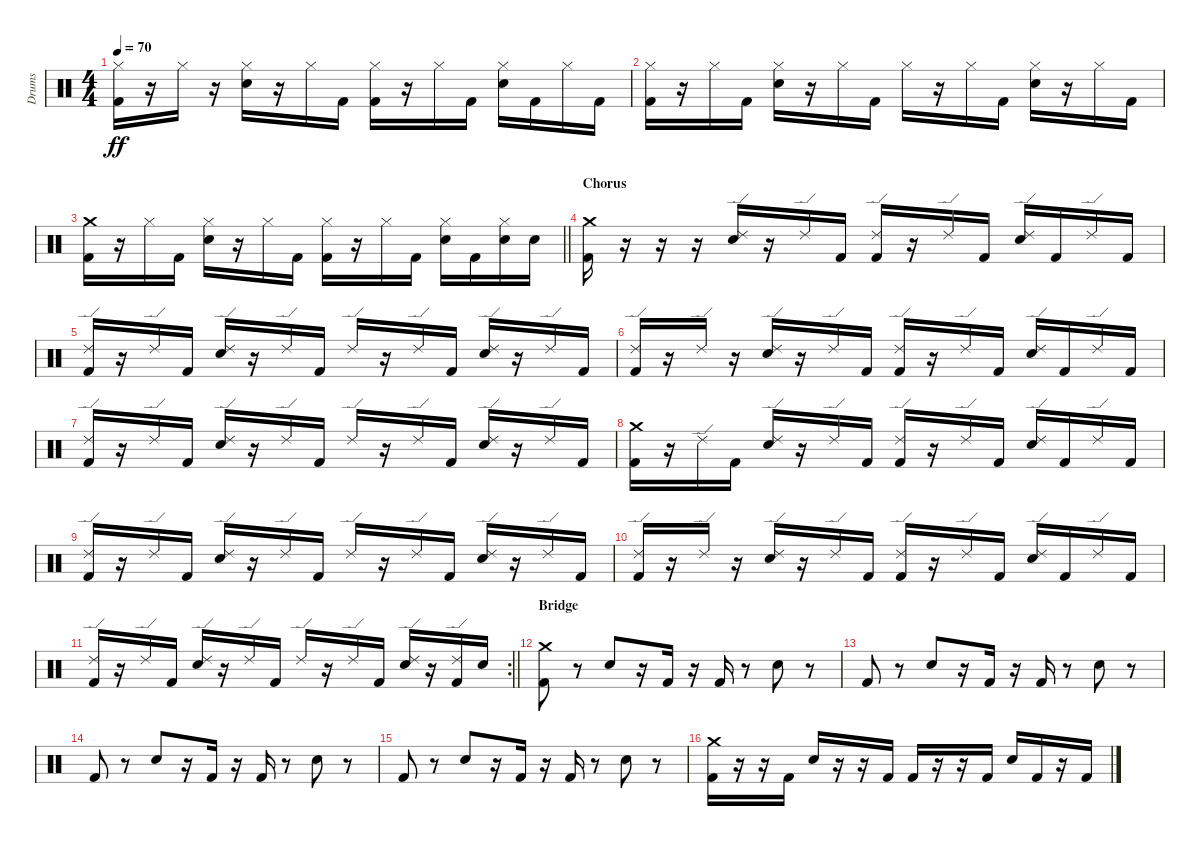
\track ("Drums" "Drums") {instrument percussion}
\staff {score}
\articulation defaults
\ts (4 4)
\tempo 70
\clef neutral
\ks c
("Hi-Hat (closed)" "Kick (hit) 2").16{dy ff} r.16 "Hi-Hat (closed)".16 r.16 ("Hi-Hat (closed)" "Snare (hit) 2").16 r.16 "Hi-Hat (closed)".16 "Kick (hit) 2".16 ("Hi-Hat (closed)" "Kick (hit) 2").16 r.16 "Hi-Hat (closed)".16 "Kick (hit) 2".16 ("Hi-Hat (closed)" "Snare (hit) 2").16 "Kick (hit) 2".16 "Hi-Hat (closed)".16 "Kick (hit) 2".16 |
("Hi-Hat (closed)" "Kick (hit) 2").16 r.16 "Hi-Hat (closed)".16 "Kick (hit) 2".16 ("Hi-Hat (closed)" "Snare (hit) 2").16 r.16 "Hi-Hat (closed)".16 "Kick (hit) 2".16 "Hi-Hat (closed)".16 r.16 "Hi-Hat (closed)".16 "Kick (hit) 2".16 ("Hi-Hat (closed)" "Snare (hit) 2").16 r.16 "Hi-Hat (closed)".16 "Kick (hit) 2".16 |
\barLineRight lightlight
("Crash medium (hit)" "Kick (hit) 2").16 r.16 "Hi-Hat (closed)".16 "Kick (hit) 2".16 ("Hi-Hat (closed)" "Snare (hit) 2").16 r.16 "Hi-Hat (closed)".16 "Kick (hit) 2".16 ("Hi-Hat (closed)" "Kick (hit) 2").16 r.16 "Hi-Hat (closed)".16 "Kick (hit) 2".16 ("Hi-Hat (closed)" "Snare (hit) 2").16 "Kick (hit) 2".16 ("Hi-Hat (closed)" "Snare (hit) 2").16 "Snare (hit) 2".16 |
\section ("" "Chorus")
("Crash medium (hit)" "Kick (hit) 2").16 r.16 r.16 r.16 ("Ride (edge) 2" "Snare (hit) 2").16 r.16 "Ride (edge) 2".16 "Kick (hit) 2".16 ("Ride (edge) 2" "Kick (hit) 2").16 r.16 "Ride (edge) 2".16 "Kick (hit) 2".16 ("Ride (edge) 2" "Snare (hit) 2").16 "Kick (hit) 2".16 "Ride (edge) 2".16 "Kick (hit) 2".16 |
("Ride (edge) 2" "Kick (hit) 2").16 r.16 "Ride (edge) 2".16 "Kick (hit) 2".16 ("Ride (edge) 2" "Snare (hit) 2").16 r.16 "Ride (edge) 2".16 "Kick (hit) 2".16 "Ride (edge) 2".16 r.16 "Ride (edge) 2".16 "Kick (hit) 2".16 ("Ride (edge) 2" "Snare (hit) 2").16 r.16 "Ride (edge) 2".16 "Kick (hit) 2".16 |
("Ride (edge) 2" "Kick (hit) 2").16 r.16 "Ride (edge) 2".16 r.16 ("Ride (edge) 2" "Snare (hit) 2").16 r.16 "Ride (edge) 2".16 "Kick (hit) 2".16 ("Ride (edge) 2" "Kick (hit) 2").16 r.16 "Ride (edge) 2".16 "Kick (hit) 2".16 ("Ride (edge) 2" "Snare (hit) 2").16 "Kick (hit) 2".16 "Ride (edge) 2".16 "Kick (hit) 2".16 |
("Ride (edge) 2" "Kick (hit) 2").16 r.16 "Ride (edge) 2".16 "Kick (hit) 2".16 ("Ride (edge) 2" "Snare (hit) 2").16 r.16 "Ride (edge) 2".16 "Kick (hit) 2".16 "Ride (edge) 2".16 r.16 "Ride (edge) 2".16 "Kick (hit) 2".16 ("Ride (edge) 2" "Snare (hit) 2").16 r.16 "Ride (edge) 2".16 "Kick (hit) 2".16 |
("Crash medium (hit)" "Kick (hit) 2").16 r.16 "Ride (edge) 2".16 "Kick (hit) 2".16 ("Ride (edge) 2" "Snare (hit) 2").16 r.16 "Ride (edge) 2".16 "Kick (hit) 2".16 ("Ride (edge) 2" "Kick (hit) 2").16 r.16 "Ride (edge) 2".16 "Kick (hit) 2".16 ("Ride (edge) 2" "Snare (hit) 2").16 "Kick (hit) 2".16 "Ride (edge) 2".16 "Kick (hit) 2".16 |
("Ride (edge) 2" "Kick (hit) 2").16 r.16 "Ride (edge) 2".16 "Kick (hit) 2".16 ("Ride (edge) 2" "Snare (hit) 2").16 r.16 "Ride (edge) 2".16 "Kick (hit) 2".16 "Ride (edge) 2".16 r.16 "Ride (edge) 2".16 "Kick (hit) 2".16 ("Ride (edge) 2" "Snare (hit) 2").16 r.16 "Ride (edge) 2".16 "Kick (hit) 2".16 |
("Ride (edge) 2" "Kick (hit) 2").16 r.16 "Ride (edge) 2".16 r.16 ("Ride (edge) 2" "Snare (hit) 2").16 r.16 "Ride (edge) 2".16 "Kick (hit) 2".16 ("Ride (edge) 2" "Kick (hit) 2").16 r.16 "Ride (edge) 2".16 "Kick (hit) 2".16 ("Ride (edge) 2" "Snare (hit) 2").16 "Kick (hit) 2".16 "Ride (edge) 2".16 "Kick (hit) 2".16 |
\rc 2
\barLineRight lightlight
("Ride (edge) 2" "Kick (hit) 2").16 r.16 "Ride (edge) 2".16 "Kick (hit) 2".16 ("Ride (edge) 2" "Snare (hit) 2").16 r.16 "Ride (edge) 2".16 "Kick (hit) 2".16 "Ride (edge) 2".16 r.16 "Ride (edge) 2".16 "Kick (hit) 2".16 ("Ride (edge) 2" "Snare (hit) 2").16 r.16 ("Ride (edge) 2" "Kick (hit) 2").16 "Snare (hit) 2".16 |
\section ("" "Bridge")
("Crash medium (hit)" "Kick (hit) 2").8 r.8 "Snare (hit) 2".8 r.16 "Kick (hit) 2".16 r.16 "Kick (hit) 2".16 r.8 "Snare (hit) 2".8 r.8 |
"Kick (hit) 2".8 r.8 "Snare (hit) 2".8 r.16 "Kick (hit) 2".16 r.16 "Kick (hit) 2".16 r.8 "Snare (hit) 2".8 r.8 |
"Kick (hit) 2".8 r.8 "Snare (hit) 2".8 r.16 "Kick (hit) 2".16 r.16 "Kick (hit) 2".16 r.8 "Snare (hit) 2".8 r.8 |
"Kick (hit) 2".8 r.8 "Snare (hit) 2".8 r.16 "Kick (hit) 2".16 r.16 "Kick (hit) 2".16 r.8 "Snare (hit) 2".8 r.8 |
("Crash medium (hit)" "Kick (hit) 2").16 r.16 r.16 "Kick (hit) 2".16 "Snare (hit) 2".16 r.16 r.16 "Kick (hit) 2".16 "Kick (hit) 2".16 r.16 r.16 "Kick (hit) 2".16 "Snare (hit) 2".16 "Kick (hit) 2".16 r.16 "Kick (hit) 2".16
